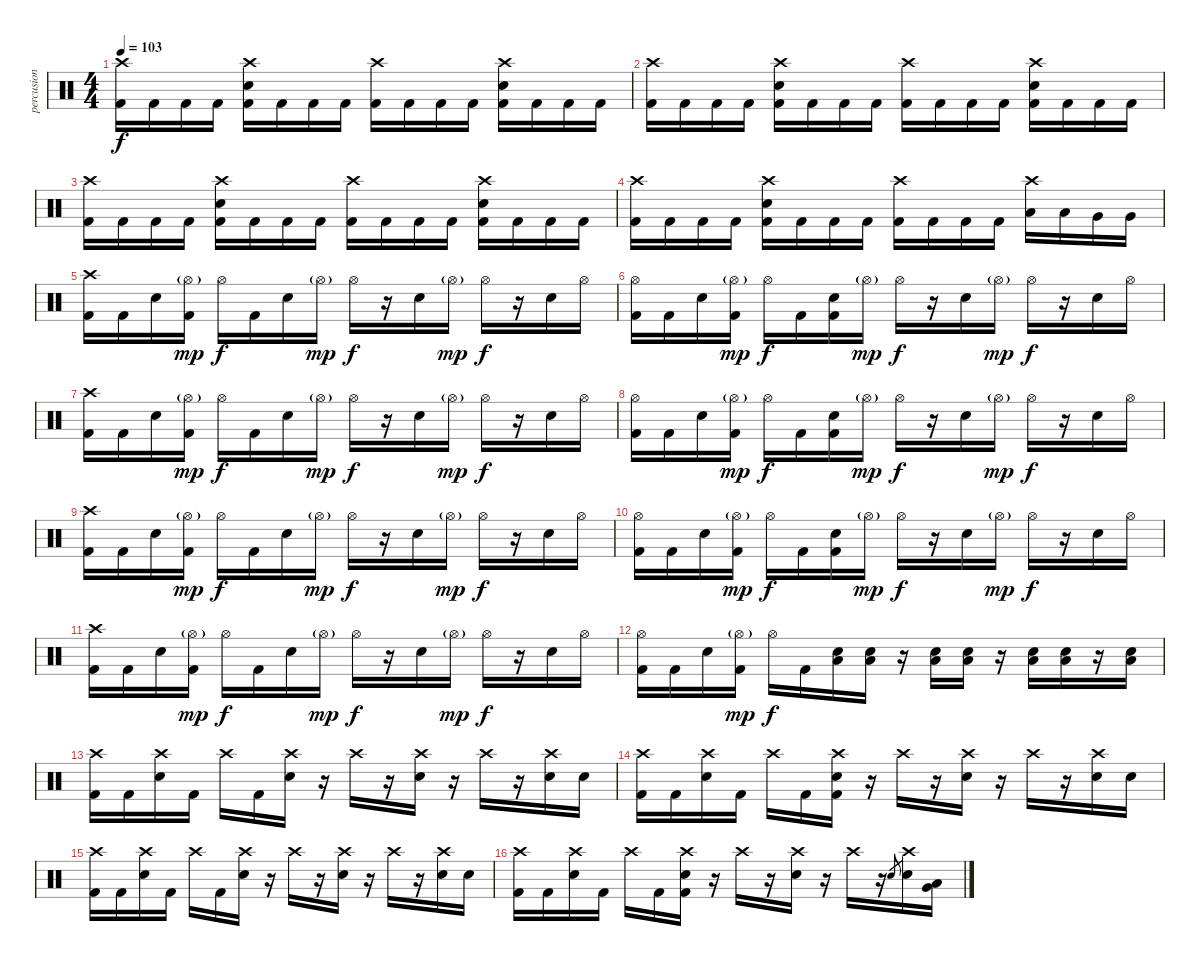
\track ("percusion" "percusion") {instrument percussion}
\staff {score}
\articulation defaults
\ts (4 4)
\tempo 103
\clef neutral
\ks c
("Crash high (hit)" "Kick (hit) 2").16{dy f} "Kick (hit) 2".16 "Kick (hit) 2".16 "Kick (hit) 2".16 ("Crash high (hit)" "Electric Snare (hit)" "Kick (hit) 2").16 "Kick (hit) 2".16 "Kick (hit) 2".16 "Kick (hit) 2".16 ("Crash high (hit)" "Kick (hit) 2").16 "Kick (hit) 2".16 "Kick (hit) 2".16 "Kick (hit) 2".16 ("Crash high (hit)" "Electric Snare (hit)" "Kick (hit) 2").16 "Kick (hit) 2".16 "Kick (hit) 2".16 "Kick (hit) 2".16 |
("Crash high (hit)" "Kick (hit) 2").16 "Kick (hit) 2".16 "Kick (hit) 2".16 "Kick (hit) 2".16 ("Crash high (hit)" "Electric Snare (hit)" "Kick (hit) 2").16 "Kick (hit) 2".16 "Kick (hit) 2".16 "Kick (hit) 2".16 ("Crash high (hit)" "Kick (hit) 2").16 "Kick (hit) 2".16 "Kick (hit) 2".16 "Kick (hit) 2".16 ("Crash high (hit)" "Electric Snare (hit)" "Kick (hit) 2").16 "Kick (hit) 2".16 "Kick (hit) 2".16 "Kick (hit) 2".16 |
("Crash high (hit)" "Kick (hit) 2").16 "Kick (hit) 2".16 "Kick (hit) 2".16 "Kick (hit) 2".16 ("Crash high (hit)" "Electric Snare (hit)" "Kick (hit) 2").16 "Kick (hit) 2".16 "Kick (hit) 2".16 "Kick (hit) 2".16 ("Crash high (hit)" "Kick (hit) 2").16 "Kick (hit) 2".16 "Kick (hit) 2".16 "Kick (hit) 2".16 ("Crash high (hit)" "Electric Snare (hit)" "Kick (hit) 2").16 "Kick (hit) 2".16 "Kick (hit) 2".16 "Kick (hit) 2".16 |
("Crash high (hit)" "Kick (hit) 2").16 "Kick (hit) 2".16 "Kick (hit) 2".16 "Kick (hit) 2".16 ("Crash high (hit)" "Electric Snare (hit)" "Kick (hit) 2").16 "Kick (hit) 2".16 "Kick (hit) 2".16 "Kick (hit) 2".16 ("Crash high (hit)" "Kick (hit) 2").16 "Kick (hit) 2".16 "Kick (hit) 2".16 "Kick (hit) 2".16 ("Crash high (hit)" "Low Tom (hit)").16 "Low Tom (hit)".16 "Very Low Tom (hit)".16 "Very Low Tom (hit)".16 |
("Crash high (hit)" "Kick (hit) 2").16 "Kick (hit) 2".16 "Electric Snare (hit)".16 ("Hi-Hat (open)"{g} "Kick (hit) 2").16{dy mp} "Hi-Hat (open)".16{dy f} "Kick (hit) 2".16 "Electric Snare (hit)".16 "Hi-Hat (open)"{g}.16{dy mp} "Hi-Hat (open)".16{dy f} r.16 "Electric Snare (hit)".16 "Hi-Hat (open)"{g}.16{dy mp} "Hi-Hat (open)".16{dy f} r.16 "Electric Snare (hit)".16 "Hi-Hat (open)".16 |
("Hi-Hat (open)" "Kick (hit) 2").16 "Kick (hit) 2".16 "Electric Snare (hit)".16 ("Hi-Hat (open)"{g} "Kick (hit) 2").16{dy mp} "Hi-Hat (open)".16{dy f} "Kick (hit) 2".16 ("Electric Snare (hit)" "Kick (hit) 2").16 "Hi-Hat (open)"{g}.16{dy mp} "Hi-Hat (open)".16{dy f} r.16 "Electric Snare (hit)".16 "Hi-Hat (open)"{g}.16{dy mp} "Hi-Hat (open)".16{dy f} r.16 "Electric Snare (hit)".16 "Hi-Hat (open)".16 |
("Crash high (hit)" "Kick (hit) 2").16 "Kick (hit) 2".16 "Electric Snare (hit)".16 ("Hi-Hat (open)"{g} "Kick (hit) 2").16{dy mp} "Hi-Hat (open)".16{dy f} "Kick (hit) 2".16 "Electric Snare (hit)".16 "Hi-Hat (open)"{g}.16{dy mp} "Hi-Hat (open)".16{dy f} r.16 "Electric Snare (hit)".16 "Hi-Hat (open)"{g}.16{dy mp} "Hi-Hat (open)".16{dy f} r.16 "Electric Snare (hit)".16 "Hi-Hat (open)".16 |
("Hi-Hat (open)" "Kick (hit) 2").16 "Kick (hit) 2".16 "Electric Snare (hit)".16 ("Hi-Hat (open)"{g} "Kick (hit) 2").16{dy mp} "Hi-Hat (open)".16{dy f} "Kick (hit) 2".16 ("Electric Snare (hit)" "Kick (hit) 2").16 "Hi-Hat (open)"{g}.16{dy mp} "Hi-Hat (open)".16{dy f} r.16 "Electric Snare (hit)".16 "Hi-Hat (open)"{g}.16{dy mp} "Hi-Hat (open)".16{dy f} r.16 "Electric Snare (hit)".16 "Hi-Hat (open)".16 |
("Crash high (hit)" "Kick (hit) 2").16 "Kick (hit) 2".16 "Electric Snare (hit)".16 ("Hi-Hat (open)"{g} "Kick (hit) 2").16{dy mp} "Hi-Hat (open)".16{dy f} "Kick (hit) 2".16 "Electric Snare (hit)".16 "Hi-Hat (open)"{g}.16{dy mp} "Hi-Hat (open)".16{dy f} r.16 "Electric Snare (hit)".16 "Hi-Hat (open)"{g}.16{dy mp} "Hi-Hat (open)".16{dy f} r.16 "Electric Snare (hit)".16 "Hi-Hat (open)".16 |
("Hi-Hat (open)" "Kick (hit) 2").16 "Kick (hit) 2".16 "Electric Snare (hit)".16 ("Hi-Hat (open)"{g} "Kick (hit) 2").16{dy mp} "Hi-Hat (open)".16{dy f} "Kick (hit) 2".16 ("Electric Snare (hit)" "Kick (hit) 2").16 "Hi-Hat (open)"{g}.16{dy mp} "Hi-Hat (open)".16{dy f} r.16 "Electric Snare (hit)".16 "Hi-Hat (open)"{g}.16{dy mp} "Hi-Hat (open)".16{dy f} r.16 "Electric Snare (hit)".16 "Hi-Hat (open)".16 |
("Crash high (hit)" "Kick (hit) 2").16 "Kick (hit) 2".16 "Electric Snare (hit)".16 ("Hi-Hat (open)"{g} "Kick (hit) 2").16{dy mp} "Hi-Hat (open)".16{dy f} "Kick (hit) 2".16 "Electric Snare (hit)".16 "Hi-Hat (open)"{g}.16{dy mp} "Hi-Hat (open)".16{dy f} r.16 "Electric Snare (hit)".16 "Hi-Hat (open)"{g}.16{dy mp} "Hi-Hat (open)".16{dy f} r.16 "Electric Snare (hit)".16 "Hi-Hat (open)".16 |
("Hi-Hat (open)" "Kick (hit) 2").16 "Kick (hit) 2".16 "Electric Snare (hit)".16 ("Hi-Hat (open)"{g} "Kick (hit) 2").16{dy mp} "Hi-Hat (open)".16{dy f} "Kick (hit) 2".16 ("Electric Snare (hit)" "Low Floor Tom (hit)").16 ("Electric Snare (hit)" "Low Floor Tom (hit)").16 r.16 ("Electric Snare (hit)" "Low Floor Tom (hit)").16 ("Electric Snare (hit)" "Low Floor Tom (hit)").16 r.16 ("Electric Snare (hit)" "Low Floor Tom (hit)").16 ("Electric Snare (hit)" "Low Floor Tom (hit)").16 r.16 ("Electric Snare (hit)" "Low Floor Tom (hit)").16 |
("Crash high (hit)" "Kick (hit) 2").16 "Kick (hit) 2".16 ("Crash high (hit)" "Electric Snare (hit)").16 "Kick (hit) 2".16 "Crash high (hit)".16 "Kick (hit) 2".16 ("Crash high (hit)" "Electric Snare (hit)").16 r.16 "Crash high (hit)".16 r.16 ("Crash high (hit)" "Electric Snare (hit)").16 r.16 "Crash high (hit)".16 r.16 ("Crash high (hit)" "Electric Snare (hit)").16 "Snare (hit)".16 |
("Crash high (hit)" "Kick (hit) 2").16 "Kick (hit) 2".16 ("Crash high (hit)" "Electric Snare (hit)").16 "Kick (hit) 2".16 "Crash high (hit)".16 "Kick (hit) 2".16 ("Crash high (hit)" "Electric Snare (hit)" "Kick (hit) 2").16 r.16 "Crash high (hit)".16 r.16 ("Crash high (hit)" "Electric Snare (hit)").16 r.16 "Crash high (hit)".16 r.16 ("Crash high (hit)" "Electric Snare (hit)").16 "Snare (hit)".16 |
("Crash high (hit)" "Kick (hit) 2").16 "Kick (hit) 2".16 ("Crash high (hit)" "Electric Snare (hit)").16 "Kick (hit) 2".16 "Crash high (hit)".16 "Kick (hit) 2".16 ("Crash high (hit)" "Electric Snare (hit)").16 r.16 "Crash high (hit)".16 r.16 ("Crash high (hit)" "Electric Snare (hit)").16 r.16 "Crash high (hit)".16 r.16 ("Crash high (hit)" "Electric Snare (hit)").16 "Snare (hit)".16 |
("Crash high (hit)" "Kick (hit) 2").16 "Kick (hit) 2".16 ("Crash high (hit)" "Electric Snare (hit)").16 "Kick (hit) 2".16 "Crash high (hit)".16 "Kick (hit) 2".16 ("Crash high (hit)" "Electric Snare (hit)" "Kick (hit) 2").16 r.16 "Crash high (hit)".16 r.16 ("Crash high (hit)" "Electric Snare (hit)").16 r.16 "Crash high (hit)".16 r.16 "Electric Snare (hit)".8{gr} ("Crash high (hit)" "Electric Snare (hit)").16 ("Very Low Tom (hit)" "Low Floor Tom (hit)").16
